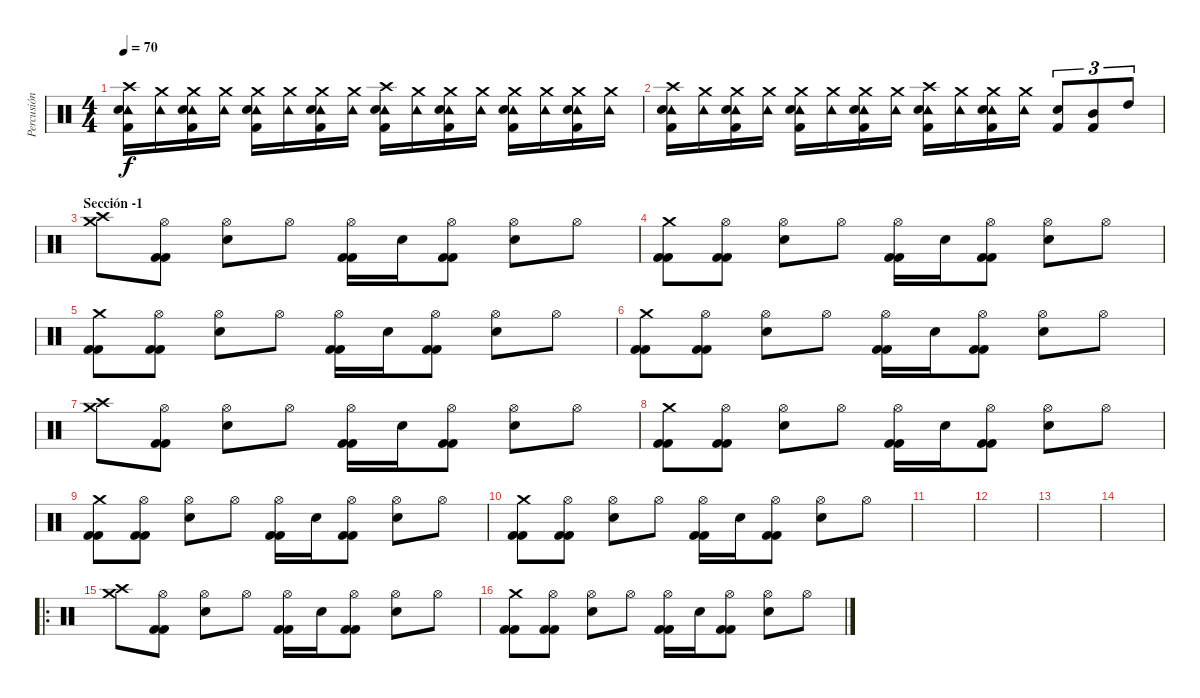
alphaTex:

\track ("Percusión" "Percusión") {instrument percussion}
\staff {score}
\articulation defaults
\ts (4 4)
\tempo 70
\clef neutral
\ks c
("Crash high (hit)" "Tambourine (hit)" "Snare (hit) 2" "Kick (hit) 2").16{dy f} ("Crash medium (hit)" "Tambourine (hit)").16 ("Crash medium (hit)" "Tambourine (hit)" "Snare (hit) 2" "Kick (hit) 2").16 ("Crash medium (hit)" "Tambourine (hit)").16 ("Crash medium (hit)" "Tambourine (hit)" "Snare (hit) 2" "Kick (hit) 2").16 ("Crash medium (hit)" "Tambourine (hit)").16 ("Crash medium (hit)" "Tambourine (hit)" "Snare (hit) 2" "Kick (hit) 2").16 ("Crash medium (hit)" "Tambourine (hit)").16 ("Crash high (hit)" "Tambourine (hit)" "Snare (hit) 2" "Kick (hit) 2").16 ("Crash medium (hit)" "Tambourine (hit)").16 ("Crash medium (hit)" "Tambourine (hit)" "Snare (hit) 2" "Kick (hit) 2").16 ("Crash medium (hit)" "Tambourine (hit)").16 ("Crash medium (hit)" "Tambourine (hit)" "Snare (hit) 2" "Kick (hit) 2").16 ("Crash medium (hit)" "Tambourine (hit)").16 ("Crash medium (hit)" "Tambourine (hit)" "Snare (hit) 2" "Kick (hit) 2").16 ("Crash medium (hit)" "Tambourine (hit)").16 |
("Crash high (hit)" "Tambourine (hit)" "Snare (hit) 2" "Kick (hit) 2").16 ("Crash medium (hit)" "Tambourine (hit)").16 ("Crash medium (hit)" "Tambourine (hit)" "Snare (hit) 2" "Kick (hit) 2").16 ("Crash medium (hit)" "Tambourine (hit)").16 ("Crash medium (hit)" "Tambourine (hit)" "Snare (hit) 2" "Kick (hit) 2").16 ("Crash medium (hit)" "Tambourine (hit)").16 ("Crash medium (hit)" "Tambourine (hit)" "Snare (hit) 2" "Kick (hit) 2").16 ("Crash medium (hit)" "Tambourine (hit)").16 ("Crash high (hit)" "Tambourine (hit)" "Snare (hit) 2" "Kick (hit) 2").16 ("Crash medium (hit)" "Tambourine (hit)").16 ("Crash medium (hit)" "Tambourine (hit)" "Snare (hit) 2" "Kick (hit) 2").16 ("Crash medium (hit)" "Tambourine (hit)").16 ("Snare (hit) 2" "Kick (hit) 2").8{tu (3 2)} ("Mid Tom (hit)" "Kick (hit) 2").8{tu (3 2)} "High Tom (hit)".8{tu (3 2)} |
\section ("" "Sección -1")
("Crash high (hit)" "Crash medium (hit)").8 ("Hi-Hat (open)" "Kick (hit) 2" "Kick (hit) 2").8 ("Hi-Hat (open)" "Electric Snare (hit)").8 "Hi-Hat (open)".8 ("Hi-Hat (open)" "Kick (hit) 2" "Kick (hit) 2").16 "Electric Snare (hit)".16 ("Hi-Hat (open)" "Kick (hit) 2" "Kick (hit) 2").8 ("Hi-Hat (open)" "Electric Snare (hit)").8 "Hi-Hat (open)".8 |
("Crash medium (hit)" "Kick (hit) 2" "Kick (hit) 2").8 ("Hi-Hat (open)" "Kick (hit) 2" "Kick (hit) 2").8 ("Hi-Hat (open)" "Electric Snare (hit)").8 "Hi-Hat (open)".8 ("Hi-Hat (open)" "Kick (hit) 2" "Kick (hit) 2").16 "Electric Snare (hit)".16 ("Hi-Hat (open)" "Kick (hit) 2" "Kick (hit) 2").8 ("Hi-Hat (open)" "Electric Snare (hit)").8 "Hi-Hat (open)".8 |
("Crash medium (hit)" "Kick (hit) 2" "Kick (hit) 2").8 ("Hi-Hat (open)" "Kick (hit) 2" "Kick (hit) 2").8 ("Hi-Hat (open)" "Electric Snare (hit)").8 "Hi-Hat (open)".8 ("Hi-Hat (open)" "Kick (hit) 2" "Kick (hit) 2").16 "Electric Snare (hit)".16 ("Hi-Hat (open)" "Kick (hit) 2" "Kick (hit) 2").8 ("Hi-Hat (open)" "Electric Snare (hit)").8 "Hi-Hat (open)".8 |
("Crash medium (hit)" "Kick (hit) 2" "Kick (hit) 2").8 ("Hi-Hat (open)" "Kick (hit) 2" "Kick (hit) 2").8 ("Hi-Hat (open)" "Electric Snare (hit)").8 "Hi-Hat (open)".8 ("Hi-Hat (open)" "Kick (hit) 2" "Kick (hit) 2").16 "Electric Snare (hit)".16 ("Hi-Hat (open)" "Kick (hit) 2" "Kick (hit) 2").8 ("Hi-Hat (open)" "Electric Snare (hit)").8 "Hi-Hat (open)".8 |
("Crash high (hit)" "Crash medium (hit)").8 ("Hi-Hat (open)" "Kick (hit) 2" "Kick (hit) 2").8 ("Hi-Hat (open)" "Electric Snare (hit)").8 "Hi-Hat (open)".8 ("Hi-Hat (open)" "Kick (hit) 2" "Kick (hit) 2").16 "Electric Snare (hit)".16 ("Hi-Hat (open)" "Kick (hit) 2" "Kick (hit) 2").8 ("Hi-Hat (open)" "Electric Snare (hit)").8 "Hi-Hat (open)".8 |
("Crash medium (hit)" "Kick (hit) 2" "Kick (hit) 2").8 ("Hi-Hat (open)" "Kick (hit) 2" "Kick (hit) 2").8 ("Hi-Hat (open)" "Electric Snare (hit)").8 "Hi-Hat (open)".8 ("Hi-Hat (open)" "Kick (hit) 2" "Kick (hit) 2").16 "Electric Snare (hit)".16 ("Hi-Hat (open)" "Kick (hit) 2" "Kick (hit) 2").8 ("Hi-Hat (open)" "Electric Snare (hit)").8 "Hi-Hat (open)".8 |
("Crash medium (hit)" "Kick (hit) 2" "Kick (hit) 2").8 ("Hi-Hat (open)" "Kick (hit) 2" "Kick (hit) 2").8 ("Hi-Hat (open)" "Electric Snare (hit)").8 "Hi-Hat (open)".8 ("Hi-Hat (open)" "Kick (hit) 2" "Kick (hit) 2").16 "Electric Snare (hit)".16 ("Hi-Hat (open)" "Kick (hit) 2" "Kick (hit) 2").8 ("Hi-Hat (open)" "Electric Snare (hit)").8 "Hi-Hat (open)".8 |
("Crash medium (hit)" "Kick (hit) 2" "Kick (hit) 2").8 ("Hi-Hat (open)" "Kick (hit) 2" "Kick (hit) 2").8 ("Hi-Hat (open)" "Electric Snare (hit)").8 "Hi-Hat (open)".8 ("Hi-Hat (open)" "Kick (hit) 2" "Kick (hit) 2").16 "Electric Snare (hit)".16 ("Hi-Hat (open)" "Kick (hit) 2" "Kick (hit) 2").8 ("Hi-Hat (open)" "Electric Snare (hit)").8 "Hi-Hat (open)".8 |
|
|
|
|
\ro
("Crash high (hit)" "Crash medium (hit)").8 ("Hi-Hat (open)" "Kick (hit) 2" "Kick (hit) 2").8 ("Hi-Hat (open)" "Electric Snare (hit)").8 "Hi-Hat (open)".8 ("Hi-Hat (open)" "Kick (hit) 2" "Kick (hit) 2").16 "Electric Snare (hit)".16 ("Hi-Hat (open)" "Kick (hit) 2" "Kick (hit) 2").8 ("Hi-Hat (open)" "Electric Snare (hit)").8 "Hi-Hat (open)".8 |
("Crash medium (hit)" "Kick (hit) 2" "Kick (hit) 2").8 ("Hi-Hat (open)" "Kick (hit) 2" "Kick (hit) 2").8 ("Hi-Hat (open)" "Electric Snare (hit)").8 "Hi-Hat (open)".8 ("Hi-Hat (open)" "Kick (hit) 2" "Kick (hit) 2").16 "Electric Snare (hit)".16 ("Hi-Hat (open)" "Kick (hit) 2" "Kick (hit) 2").8 ("Hi-Hat (open)" "Electric Snare (hit)").8 "Hi-Hat (open)".8
